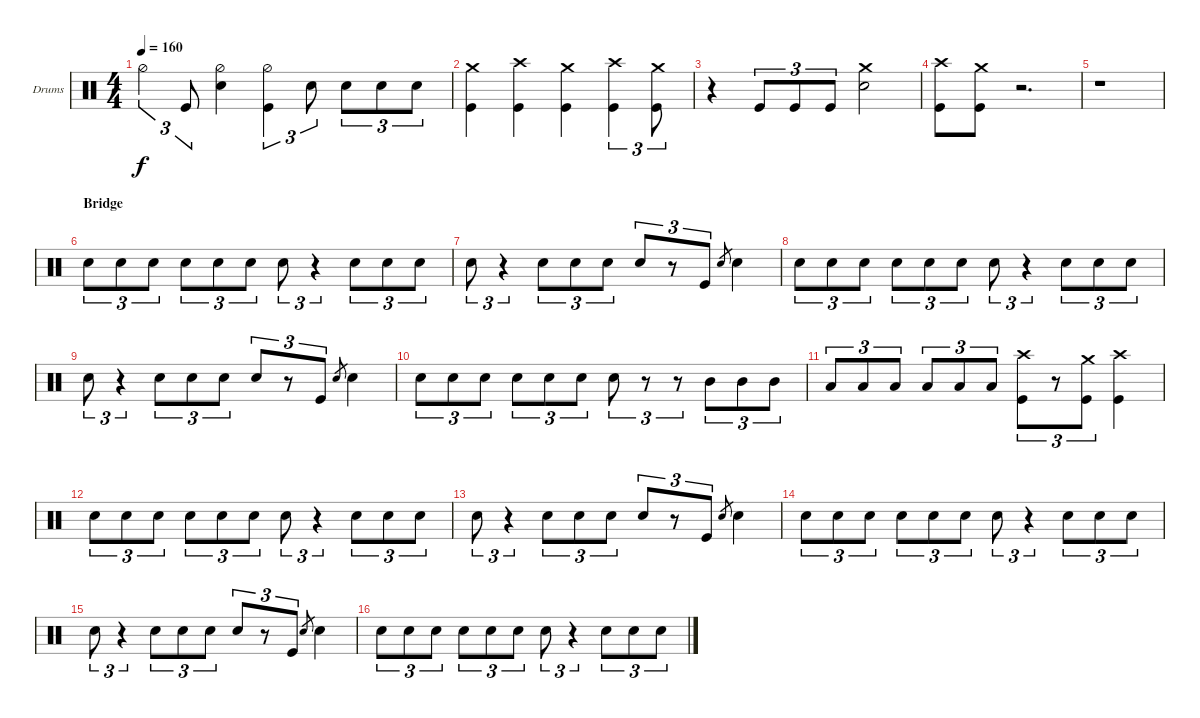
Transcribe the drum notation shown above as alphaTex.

\bracketExtendMode groupsimilarinstruments
\firstSystemTrackNameOrientation horizontal
\otherSystemsTrackNameOrientation horizontal
\track ("Drumkit" "Drums") {instrument percussion}
\staff {score}
\articulation defaults
\ts (4 4)
\tempo 160
\clef neutral
\ks c "Hi-Hat (half)".4{tu (3 2) dy f} "Kick (hit)".8{tu (3 2)}
("Snare (hit) 2" "Hi-Hat (half)").4 ("Kick (hit)" "Hi-Hat (half)").4{tu (3 2)} "Snare (hit) 2".8{tu (3 2)} "Snare (hit) 2".8{tu (3 2)} "Snare (hit) 2".8{tu (3 2)} "Snare (hit) 2".8{tu (3 2)} |
("Kick (hit)" "Crash medium (hit)").4 ("Kick (hit)" "Crash high (hit)").4 ("Kick (hit)" "Crash medium (hit)").4 ("Kick (hit)" "Crash high (hit)").4{tu (3 2)} ("Kick (hit)" "Crash medium (hit)").8{tu (3 2)} |
r.4 "Kick (hit)".8{tu (3 2)} "Kick (hit)".8{tu (3 2)} "Kick (hit)".8{tu (3 2)} ("Snare (hit) 2" "Crash medium (hit)").2 |
("Kick (hit)" "Crash high (hit)").8 ("Kick (hit)" "Crash medium (hit)").8 r.2{d} |
r.1 |
\section ("" "Bridge")
"Snare (hit) 2".8{tu (3 2)} "Snare (hit) 2".8{tu (3 2)} "Snare (hit) 2".8{tu (3 2)} "Snare (hit) 2".8{tu (3 2)} "Snare (hit) 2".8{tu (3 2)} "Snare (hit) 2".8{tu (3 2)} "Snare (hit) 2".8{tu (3 2)} r.4{tu (3 2)} "Snare (hit) 2".8{tu (3 2)} "Snare (hit) 2".8{tu (3 2)} "Snare (hit) 2".8{tu (3 2)} |
"Snare (hit) 2".8{tu (3 2)} r.4{tu (3 2)} "Snare (hit) 2".8{tu (3 2)} "Snare (hit) 2".8{tu (3 2)} "Snare (hit) 2".8{tu (3 2)} "Snare (hit) 2".8{tu (3 2)} r.8{tu (3 2)} "Kick (hit)".8{tu (3 2)} "Snare (hit) 2".8{gr} "Snare (hit) 2".4 |
"Snare (hit) 2".8{tu (3 2)} "Snare (hit) 2".8{tu (3 2)} "Snare (hit) 2".8{tu (3 2)} "Snare (hit) 2".8{tu (3 2)} "Snare (hit) 2".8{tu (3 2)} "Snare (hit) 2".8{tu (3 2)} "Snare (hit) 2".8{tu (3 2)} r.4{tu (3 2)} "Snare (hit) 2".8{tu (3 2)} "Snare (hit) 2".8{tu (3 2)} "Snare (hit) 2".8{tu (3 2)} |
"Snare (hit) 2".8{tu (3 2)} r.4{tu (3 2)} "Snare (hit) 2".8{tu (3 2)} "Snare (hit) 2".8{tu (3 2)} "Snare (hit) 2".8{tu (3 2)} "Snare (hit) 2".8{tu (3 2)} r.8{tu (3 2)} "Kick (hit)".8{tu (3 2)} "Snare (hit) 2".8{gr} "Snare (hit) 2".4 |
"Snare (hit) 2".8{tu (3 2)} "Snare (hit) 2".8{tu (3 2)} "Snare (hit) 2".8{tu (3 2)} "Snare (hit) 2".8{tu (3 2)} "Snare (hit) 2".8{tu (3 2)} "Snare (hit) 2".8{tu (3 2)} "Snare (hit) 2".8{tu (3 2)} r.8{tu (3 2)} r.8{tu (3 2)} "Mid Tom (hit)".8{tu (3 2)} "Mid Tom (hit)".8{tu (3 2)} "Mid Tom (hit)".8{tu (3 2)} |
"Low Tom (hit)".8{tu (3 2)} "Low Tom (hit)".8{tu (3 2)} "Low Tom (hit)".8{tu (3 2)} "Low Tom (hit)".8{tu (3 2)} "Low Tom (hit)".8{tu (3 2)} "Low Tom (hit)".8{tu (3 2)} ("Kick (hit)" "Crash high (hit)").8{tu (3 2)} r.8{tu (3 2)} ("Kick (hit)" "Crash medium (hit)").8{tu (3 2)} ("Kick (hit)" "Crash high (hit)").4 |
"Snare (hit) 2".8{tu (3 2)} "Snare (hit) 2".8{tu (3 2)} "Snare (hit) 2".8{tu (3 2)} "Snare (hit) 2".8{tu (3 2)} "Snare (hit) 2".8{tu (3 2)} "Snare (hit) 2".8{tu (3 2)} "Snare (hit) 2".8{tu (3 2)} r.4{tu (3 2)} "Snare (hit) 2".8{tu (3 2)} "Snare (hit) 2".8{tu (3 2)} "Snare (hit) 2".8{tu (3 2)} |
"Snare (hit) 2".8{tu (3 2)} r.4{tu (3 2)} "Snare (hit) 2".8{tu (3 2)} "Snare (hit) 2".8{tu (3 2)} "Snare (hit) 2".8{tu (3 2)} "Snare (hit) 2".8{tu (3 2)} r.8{tu (3 2)} "Kick (hit)".8{tu (3 2)} "Snare (hit) 2".8{gr} "Snare (hit) 2".4 |
"Snare (hit) 2".8{tu (3 2)} "Snare (hit) 2".8{tu (3 2)} "Snare (hit) 2".8{tu (3 2)} "Snare (hit) 2".8{tu (3 2)} "Snare (hit) 2".8{tu (3 2)} "Snare (hit) 2".8{tu (3 2)} "Snare (hit) 2".8{tu (3 2)} r.4{tu (3 2)} "Snare (hit) 2".8{tu (3 2)} "Snare (hit) 2".8{tu (3 2)} "Snare (hit) 2".8{tu (3 2)} |
"Snare (hit) 2".8{tu (3 2)} r.4{tu (3 2)} "Snare (hit) 2".8{tu (3 2)} "Snare (hit) 2".8{tu (3 2)} "Snare (hit) 2".8{tu (3 2)} "Snare (hit) 2".8{tu (3 2)} r.8{tu (3 2)} "Kick (hit)".8{tu (3 2)} "Snare (hit) 2".8{gr} "Snare (hit) 2".4 |
"Snare (hit) 2".8{tu (3 2)} "Snare (hit) 2".8{tu (3 2)} "Snare (hit) 2".8{tu (3 2)} "Snare (hit) 2".8{tu (3 2)} "Snare (hit) 2".8{tu (3 2)} "Snare (hit) 2".8{tu (3 2)} "Snare (hit) 2".8{tu (3 2)} r.4{tu (3 2)} "Snare (hit) 2".8{tu (3 2)} "Snare (hit) 2".8{tu (3 2)} "Snare (hit) 2".8{tu (3 2)}
